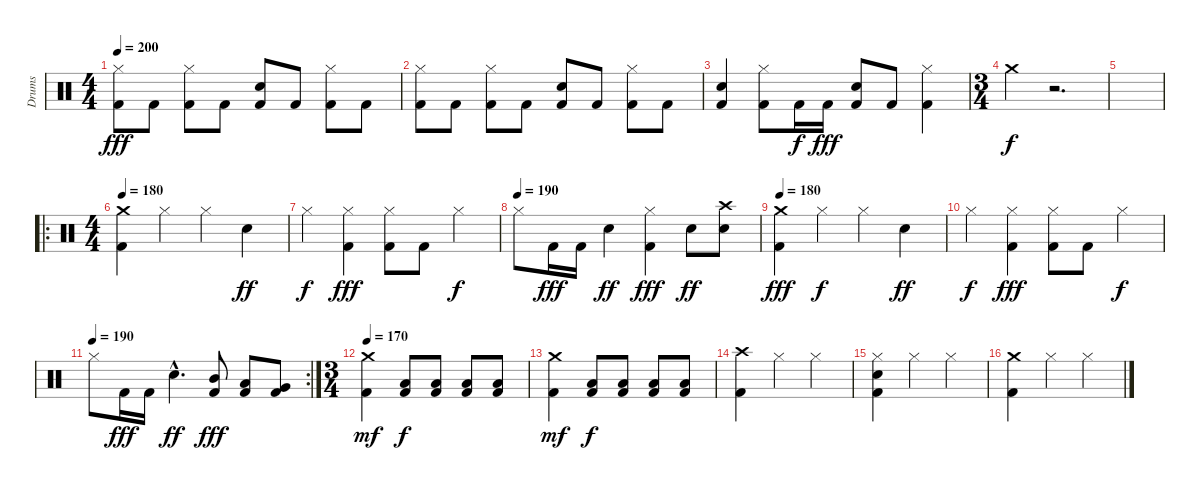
\track ("Drums" "Drums") {instrument percussion}
\staff {score}
\articulation defaults
\ts (4 4)
\tempo 200
\clef neutral
\ks c
("Hi-Hat (closed)" "Kick (hit) 2").8{dy fff} "Kick (hit) 2".8 ("Hi-Hat (closed)" "Kick (hit) 2").8 "Kick (hit) 2".8 ("Electric Snare (hit)" "Kick (hit) 2").8 "Kick (hit) 2".8 ("Hi-Hat (closed)" "Kick (hit) 2").8 "Kick (hit) 2".8 |
("Hi-Hat (closed)" "Kick (hit) 2").8 "Kick (hit) 2".8 ("Hi-Hat (closed)" "Kick (hit) 2").8 "Kick (hit) 2".8 ("Electric Snare (hit)" "Kick (hit) 2").8 "Kick (hit) 2".8 ("Hi-Hat (closed)" "Kick (hit) 2").8 "Kick (hit) 2".8 |
("Electric Snare (hit)" "Kick (hit) 2").4 ("Hi-Hat (closed)" "Kick (hit) 2").8 "Kick (hit) 2".16{dy f} "Kick (hit) 2".16{dy fff} ("Electric Snare (hit)" "Kick (hit) 2").8 "Kick (hit) 2".8 ("Hi-Hat (closed)" "Kick (hit) 2").4 |
\ts (3 4)
"Crash medium (hit)".4{dy f} r.2{d} |
|
\ro
\ts (4 4)
\tempo 180
("Crash medium (hit)" "Kick (hit) 2").4 "Hi-Hat (closed)".4 "Hi-Hat (closed)".4 "Electric Snare (hit)".4{dy ff} |
"Hi-Hat (closed)".4{dy f} ("Hi-Hat (closed)" "Kick (hit) 2").4{dy fff} ("Hi-Hat (closed)" "Kick (hit) 2").8 "Kick (hit) 2".8 "Hi-Hat (closed)".4{dy f} |
\tempo (190)
"Hi-Hat (closed)".8 "Kick (hit) 2".16{dy fff} "Kick (hit) 2".16 "Electric Snare (hit)".4{dy ff} ("Hi-Hat (closed)" "Kick (hit) 2").4{dy fff} "Electric Snare (hit)".8{dy ff} ("Crash high (hit)" "Electric Snare (hit)").8 |
\tempo 180
("Crash medium (hit)" "Kick (hit) 2").4{dy fff} "Hi-Hat (closed)".4{dy f} "Hi-Hat (closed)".4 "Electric Snare (hit)".4{dy ff} |
"Hi-Hat (closed)".4{dy f} ("Hi-Hat (closed)" "Kick (hit) 2").4{dy fff} ("Hi-Hat (closed)" "Kick (hit) 2").8 "Kick (hit) 2".8 "Hi-Hat (closed)".4{dy f} |
\rc 2
\tempo (190)
"Hi-Hat (closed)".8 "Kick (hit) 2".16{dy fff} "Kick (hit) 2".16 "Electric Snare (hit)"{hac}.4{d dy ff} ("Mid Tom (hit)" "Kick (hit) 2").8{dy fff} ("Low Tom (hit)" "Kick (hit) 2").8 ("Very Low Tom (hit)" "Kick (hit) 2").8 |
\ts (3 4)
\tempo 170
("Crash medium (hit)" "Kick (hit) 2").4{dy mf} ("Low Tom (hit)" "Kick (hit) 2").8{dy f} ("Low Tom (hit)" "Kick (hit) 2").8 ("Low Tom (hit)" "Kick (hit) 2").8 ("Low Tom (hit)" "Kick (hit) 2").8 |
("Crash medium (hit)" "Kick (hit) 2").4{dy mf} ("Low Tom (hit)" "Kick (hit) 2").8{dy f} ("Low Tom (hit)" "Kick (hit) 2").8 ("Low Tom (hit)" "Kick (hit) 2").8 ("Low Tom (hit)" "Kick (hit) 2").8 |
("Crash high (hit)" "Kick (hit) 2").4 "Hi-Hat (closed)".4 "Hi-Hat (closed)".4 |
("Hi-Hat (closed)" "Electric Snare (hit)" "Kick (hit) 2").4 "Hi-Hat (closed)".4 "Hi-Hat (closed)".4 |
("Crash medium (hit)" "Kick (hit) 2").4 "Hi-Hat (closed)".4 "Hi-Hat (closed)".4
